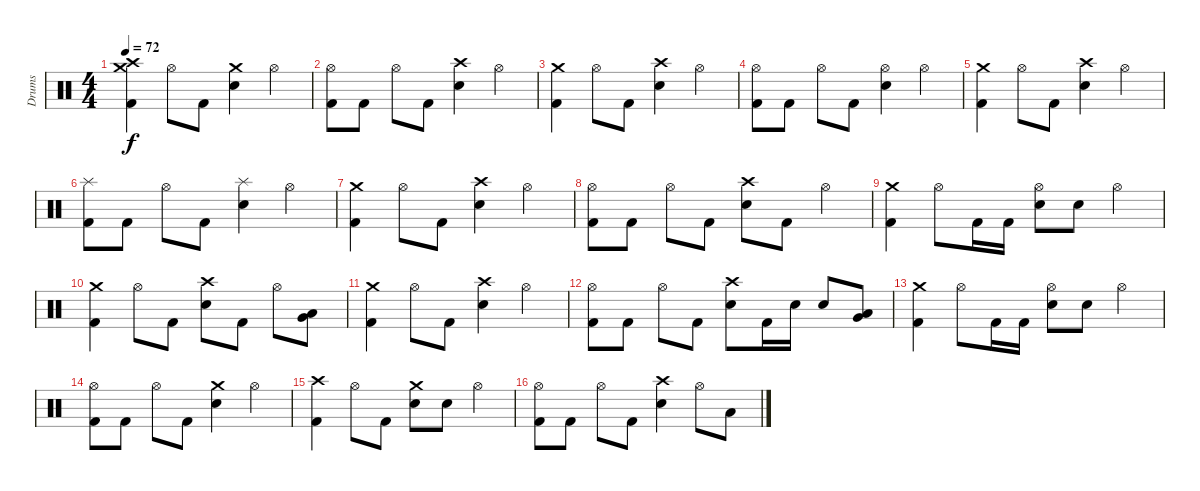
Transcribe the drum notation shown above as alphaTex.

\track ("Drums" "Drums") {instrument percussion}
\staff {score}
\articulation defaults
\ts (4 4)
\tempo 72
\clef neutral
\ks c
("Crash medium (hit)" "Crash high (hit)" "Kick (hit) 2").4{dy f} "Hi-Hat (open)".8 "Kick (hit) 2".8 ("Crash medium (hit)" "Snare (hit) 2").4 "Hi-Hat (open)".4 |
("Hi-Hat (open)" "Kick (hit) 2").8 "Kick (hit) 2".8 "Hi-Hat (open)".8 "Kick (hit) 2".8 ("Crash high (hit)" "Snare (hit) 2").4 "Hi-Hat (open)".4 |
("Crash medium (hit)" "Kick (hit) 2").4 "Hi-Hat (open)".8 "Kick (hit) 2".8 ("Crash high (hit)" "Snare (hit) 2").4 "Hi-Hat (open)".4 |
("Hi-Hat (open)" "Kick (hit) 2").8 "Kick (hit) 2".8 "Hi-Hat (open)".8 "Kick (hit) 2".8 ("Hi-Hat (open)" "Snare (hit) 2").4 "Hi-Hat (open)".4 |
("Crash medium (hit)" "Kick (hit) 2").4 "Hi-Hat (open)".8 "Kick (hit) 2".8 ("Crash high (hit)" "Snare (hit) 2").4 "Hi-Hat (open)".4 |
("Splash (hit)" "Kick (hit) 2").8 "Kick (hit) 2".8 "Hi-Hat (open)".8 "Kick (hit) 2".8 ("Splash (hit)" "Snare (hit) 2").4 "Hi-Hat (open)".4 |
("Crash medium (hit)" "Kick (hit) 2").4 "Hi-Hat (open)".8 "Kick (hit) 2".8 ("Crash high (hit)" "Snare (hit) 2").4 "Hi-Hat (open)".4 |
("Hi-Hat (open)" "Kick (hit) 2").8 "Kick (hit) 2".8 "Hi-Hat (open)".8 "Kick (hit) 2".8 ("Crash high (hit)" "Snare (hit) 2").8 "Kick (hit) 2".8 "Hi-Hat (open)".4 |
("Crash medium (hit)" "Kick (hit) 2").4 "Hi-Hat (open)".8 "Kick (hit) 2".16 "Kick (hit) 2".16 ("Hi-Hat (open)" "Snare (hit) 2").8 "Snare (hit) 2".8 "Hi-Hat (open)".4 |
("Crash medium (hit)" "Kick (hit) 2").4 "Hi-Hat (open)".8 "Kick (hit) 2".8 ("Crash high (hit)" "Snare (hit) 2").8 "Kick (hit) 2".8 "Hi-Hat (open)".8 ("Low Tom (hit)" "Very Low Tom (hit)").8 |
("Crash medium (hit)" "Kick (hit) 2").4 "Hi-Hat (open)".8 "Kick (hit) 2".8 ("Crash high (hit)" "Snare (hit) 2").4 "Hi-Hat (open)".4 |
("Hi-Hat (open)" "Kick (hit) 2").8 "Kick (hit) 2".8 "Hi-Hat (open)".8 "Kick (hit) 2".8 ("Crash high (hit)" "Snare (hit) 2").8 "Kick (hit) 2".16 "Snare (hit) 2".16 "Snare (hit) 2".8 ("Low Tom (hit)" "Very Low Tom (hit)").8 |
("Crash medium (hit)" "Kick (hit) 2").4 "Hi-Hat (open)".8 "Kick (hit) 2".16 "Kick (hit) 2".16 ("Hi-Hat (open)" "Snare (hit) 2").8 "Snare (hit) 2".8 "Hi-Hat (open)".4 |
("Hi-Hat (open)" "Kick (hit) 2").8 "Kick (hit) 2".8 "Hi-Hat (open)".8 "Kick (hit) 2".8 ("Crash medium (hit)" "Snare (hit) 2").4 "Hi-Hat (open)".4 |
("Crash high (hit)" "Kick (hit) 2").4 "Hi-Hat (open)".8 "Kick (hit) 2".8 ("Crash medium (hit)" "Snare (hit) 2").8 "Snare (hit) 2".8 "Hi-Hat (open)".4 |
("Hi-Hat (open)" "Kick (hit) 2").8 "Kick (hit) 2".8 "Hi-Hat (open)".8 "Kick (hit) 2".8 ("Crash high (hit)" "Snare (hit) 2").4 "Hi-Hat (open)".8 "Low Tom (hit)".8
